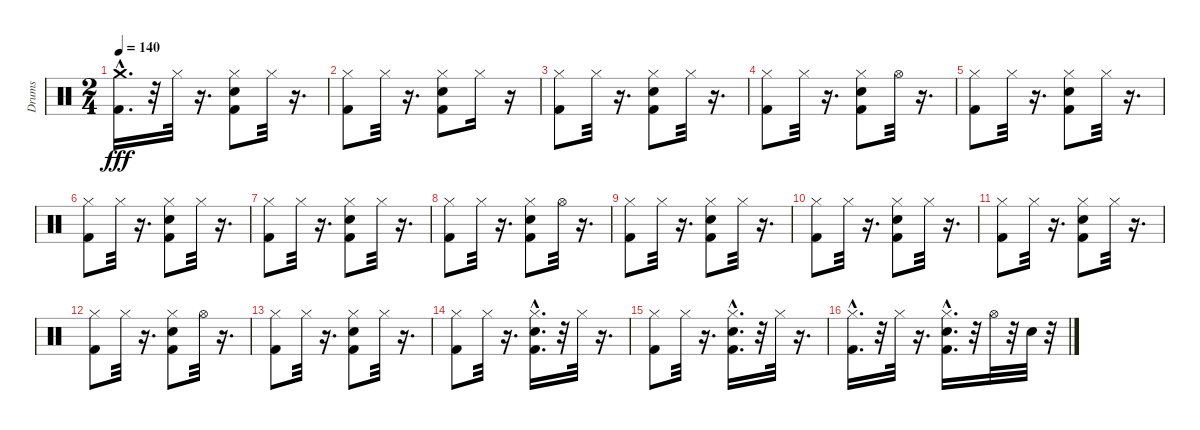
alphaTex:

\track ("Drums" "Drums") {instrument percussion}
\staff {score}
\articulation defaults
\ts (2 4)
\tempo 140
\clef neutral
\ks c
("Kick (hit) 2"{hac} "Crash medium (hit)").16{d dy fff} r.32 "Hi-Hat (closed)".32 r.16{d} ("Snare (hit) 2" "Hi-Hat (closed)" "Kick (hit) 2").8 "Hi-Hat (closed)".32 r.16{d} |
("Kick (hit) 2" "Hi-Hat (closed)").8 "Hi-Hat (closed)".32 r.16{d} ("Snare (hit) 2" "Kick (hit) 2" "Hi-Hat (closed)").8 "Hi-Hat (closed)".16 r.16 |
("Kick (hit) 2" "Hi-Hat (closed)").8 "Hi-Hat (closed)".32 r.16{d} ("Snare (hit) 2" "Kick (hit) 2" "Hi-Hat (closed)").8 "Hi-Hat (closed)".32 r.16{d} |
("Kick (hit) 2" "Hi-Hat (closed)").8 "Hi-Hat (closed)".32 r.16{d} ("Kick (hit) 2" "Snare (hit) 2" "Hi-Hat (closed)").8 "Hi-Hat (open)".32 r.16{d} |
("Kick (hit) 2" "Hi-Hat (closed)").8 "Hi-Hat (closed)".32 r.16{d} ("Snare (hit) 2" "Kick (hit) 2" "Hi-Hat (closed)").8 "Hi-Hat (closed)".32 r.16{d} |
("Kick (hit) 2" "Hi-Hat (closed)").8 "Hi-Hat (closed)".32 r.16{d} ("Snare (hit) 2" "Kick (hit) 2" "Hi-Hat (closed)").8 "Hi-Hat (closed)".32 r.16{d} |
("Kick (hit) 2" "Hi-Hat (closed)").8 "Hi-Hat (closed)".32 r.16{d} ("Snare (hit) 2" "Kick (hit) 2" "Hi-Hat (closed)").8 "Hi-Hat (closed)".32 r.16{d} |
("Kick (hit) 2" "Hi-Hat (closed)").8 "Hi-Hat (closed)".32 r.16{d} ("Snare (hit) 2" "Kick (hit) 2" "Hi-Hat (closed)").8 "Hi-Hat (open)".32 r.16{d} |
("Kick (hit) 2" "Hi-Hat (closed)").8 "Hi-Hat (closed)".32 r.16{d} ("Snare (hit) 2" "Kick (hit) 2" "Hi-Hat (closed)").8 "Hi-Hat (closed)".32 r.16{d} |
("Kick (hit) 2" "Hi-Hat (closed)").8 "Hi-Hat (closed)".32 r.16{d} ("Snare (hit) 2" "Kick (hit) 2" "Hi-Hat (closed)").8 "Hi-Hat (closed)".32 r.16{d} |
("Kick (hit) 2" "Hi-Hat (closed)").8 "Hi-Hat (closed)".32 r.16{d} ("Snare (hit) 2" "Kick (hit) 2" "Hi-Hat (closed)").8 "Hi-Hat (closed)".32 r.16{d} |
("Kick (hit) 2" "Hi-Hat (closed)").8 "Hi-Hat (closed)".32 r.16{d} ("Snare (hit) 2" "Kick (hit) 2" "Hi-Hat (closed)").8 "Hi-Hat (open)".32 r.16{d} |
("Kick (hit) 2" "Hi-Hat (closed)").8 "Hi-Hat (closed)".32 r.16{d} ("Hi-Hat (closed)" "Snare (hit) 2" "Kick (hit) 2").8 "Hi-Hat (closed)".32 r.16{d} |
("Kick (hit) 2" "Hi-Hat (closed)").8 "Hi-Hat (closed)".32 r.16{d} ("Kick (hit) 2"{hac} "Hi-Hat (closed)" "Snare (hit) 2"{hac}).16{d} r.32 "Hi-Hat (closed)".32 r.16{d} |
("Kick (hit) 2" "Hi-Hat (closed)").8 "Hi-Hat (closed)".32 r.16{d} ("Kick (hit) 2"{hac} "Hi-Hat (closed)" "Snare (hit) 2"{hac}).16{d} r.32 "Hi-Hat (closed)".32 r.16{d} |
("Kick (hit) 2"{hac} "Hi-Hat (closed)").16{d} r.32 "Hi-Hat (closed)".32 r.16{d} ("Hi-Hat (closed)" "Snare (hit) 2"{hac} "Kick (hit) 2"{hac}).16{d} r.32 "Hi-Hat (open)".32 r.32 "Snare (hit) 2".32 r.32
